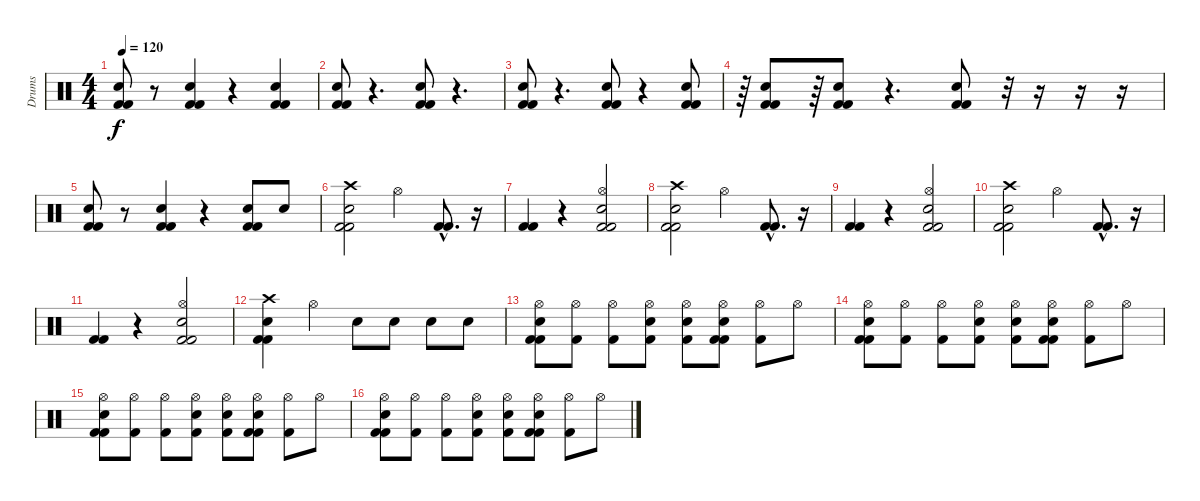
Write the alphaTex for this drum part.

\track ("Drums" "Drums") {instrument percussion}
\staff {score}
\articulation defaults
\ts (4 4)
\tempo 120
\clef neutral
\ks c
("Snare (hit) 2" "Kick (hit) 2" "Kick (hit) 2").8{dy f} r.8 ("Snare (hit) 2" "Kick (hit) 2" "Kick (hit) 2").4 r.4 ("Snare (hit) 2" "Kick (hit) 2" "Kick (hit) 2").4 |
("Snare (hit) 2" "Kick (hit) 2" "Kick (hit) 2").8 r.4{d} ("Snare (hit) 2" "Kick (hit) 2" "Kick (hit) 2").8 r.4{d} |
("Snare (hit) 2" "Kick (hit) 2" "Kick (hit) 2").8 r.4{d} ("Snare (hit) 2" "Kick (hit) 2" "Kick (hit) 2").8 r.4 ("Snare (hit) 2" "Kick (hit) 2" "Kick (hit) 2").8 |
r.64 ("Snare (hit) 2" "Kick (hit) 2" "Kick (hit) 2").8 r.64 ("Snare (hit) 2" "Kick (hit) 2" "Kick (hit) 2").8 r.4{d} ("Snare (hit) 2" "Kick (hit) 2" "Kick (hit) 2").8 r.32 r.16 r.16 r.16 |
("Snare (hit) 2" "Kick (hit) 2" "Kick (hit) 2").8 r.8 ("Snare (hit) 2" "Kick (hit) 2" "Kick (hit) 2").4 r.4 ("Snare (hit) 2" "Kick (hit) 2" "Kick (hit) 2").8 "Snare (hit) 2".8 |
("Crash high (hit)" "Snare (hit) 2" "Kick (hit) 2" "Kick (hit) 2").2 "Hi-Hat (open)".4 ("Kick (hit) 2"{hac} "Kick (hit) 2"{hac}).8{d} r.16 |
("Kick (hit) 2" "Kick (hit) 2").4 r.4 ("Hi-Hat (open)" "Electric Snare (hit)" "Kick (hit) 2" "Kick (hit) 2").2 |
("Crash high (hit)" "Snare (hit) 2" "Kick (hit) 2" "Kick (hit) 2").2 "Hi-Hat (open)".4 ("Kick (hit) 2"{hac} "Kick (hit) 2"{hac}).8{d} r.16 |
("Kick (hit) 2" "Kick (hit) 2").4 r.4 ("Hi-Hat (open)" "Electric Snare (hit)" "Kick (hit) 2" "Kick (hit) 2").2 |
("Crash high (hit)" "Snare (hit) 2" "Kick (hit) 2" "Kick (hit) 2").2 "Hi-Hat (open)".4 ("Kick (hit) 2"{hac} "Kick (hit) 2"{hac}).8{d} r.16 |
("Kick (hit) 2" "Kick (hit) 2").4 r.4 ("Hi-Hat (open)" "Electric Snare (hit)" "Kick (hit) 2" "Kick (hit) 2").2 |
("Crash high (hit)" "Snare (hit) 2" "Kick (hit) 2" "Kick (hit) 2").4 "Hi-Hat (open)".4 "Snare (hit) 2".8 "Snare (hit) 2".8 "Snare (hit) 2".8 "Snare (hit) 2".8 |
("Hi-Hat (open)" "Snare (hit) 2" "Kick (hit) 2" "Kick (hit) 2").8 ("Hi-Hat (open)" "Kick (hit) 2").8 ("Hi-Hat (open)" "Kick (hit) 2").8 ("Hi-Hat (open)" "Electric Snare (hit)" "Kick (hit) 2").8 ("Hi-Hat (open)" "Snare (hit) 2" "Kick (hit) 2").8 ("Hi-Hat (open)" "Snare (hit) 2" "Kick (hit) 2" "Kick (hit) 2").8 ("Hi-Hat (open)" "Kick (hit) 2").8 "Hi-Hat (open)".8 |
("Hi-Hat (open)" "Snare (hit) 2" "Kick (hit) 2" "Kick (hit) 2").8 ("Hi-Hat (open)" "Kick (hit) 2").8 ("Hi-Hat (open)" "Kick (hit) 2").8 ("Hi-Hat (open)" "Electric Snare (hit)" "Kick (hit) 2").8 ("Hi-Hat (open)" "Snare (hit) 2" "Kick (hit) 2").8 ("Hi-Hat (open)" "Snare (hit) 2" "Kick (hit) 2" "Kick (hit) 2").8 ("Hi-Hat (open)" "Kick (hit) 2").8 "Hi-Hat (open)".8 |
("Hi-Hat (open)" "Snare (hit) 2" "Kick (hit) 2" "Kick (hit) 2").8 ("Hi-Hat (open)" "Kick (hit) 2").8 ("Hi-Hat (open)" "Kick (hit) 2").8 ("Hi-Hat (open)" "Electric Snare (hit)" "Kick (hit) 2").8 ("Hi-Hat (open)" "Snare (hit) 2" "Kick (hit) 2").8 ("Hi-Hat (open)" "Snare (hit) 2" "Kick (hit) 2" "Kick (hit) 2").8 ("Hi-Hat (open)" "Kick (hit) 2").8 "Hi-Hat (open)".8 |
("Hi-Hat (open)" "Snare (hit) 2" "Kick (hit) 2" "Kick (hit) 2").8 ("Hi-Hat (open)" "Kick (hit) 2").8 ("Hi-Hat (open)" "Kick (hit) 2").8 ("Hi-Hat (open)" "Electric Snare (hit)" "Kick (hit) 2").8 ("Hi-Hat (open)" "Snare (hit) 2" "Kick (hit) 2").8 ("Hi-Hat (open)" "Snare (hit) 2" "Kick (hit) 2" "Kick (hit) 2").8 ("Hi-Hat (open)" "Kick (hit) 2").8 "Hi-Hat (open)".8
